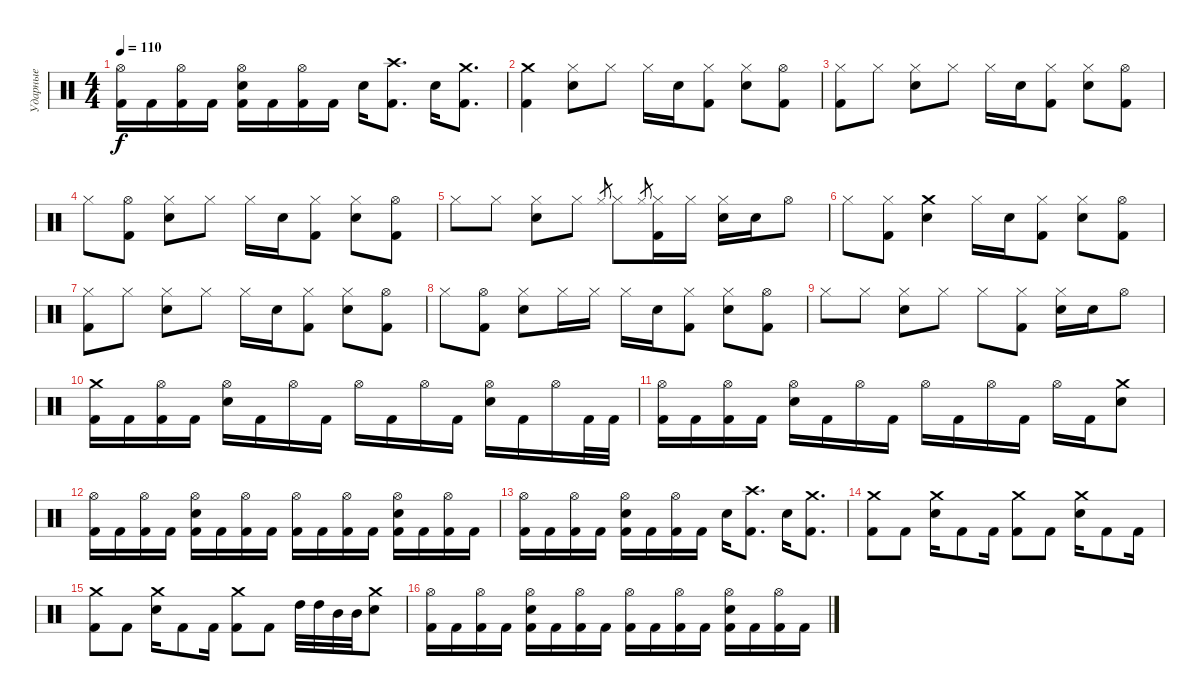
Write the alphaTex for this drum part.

\track ("Ударные" "Ударные") {instrument percussion}
\staff {score}
\articulation defaults
\ts (4 4)
\tempo 110
\clef neutral
\ks c
("Kick (hit) 2" "Hi-Hat (open)").16{dy f} "Kick (hit) 2".16 ("Kick (hit) 2" "Hi-Hat (open)").16 "Kick (hit) 2".16 ("Kick (hit) 2" "Hi-Hat (open)" "Electric Snare (hit)").16 "Kick (hit) 2".16 ("Kick (hit) 2" "Hi-Hat (open)").16 "Kick (hit) 2".16 "Electric Snare (hit)".16 ("Kick (hit) 2" "Crash high (hit)").8{d} "Electric Snare (hit)".16 ("Kick (hit) 2" "Crash medium (hit)").8{d} |
("Kick (hit) 2" "Crash medium (hit)").4 ("Electric Snare (hit)" "Hi-Hat (closed)").8 "Hi-Hat (closed)".8 "Hi-Hat (closed)".16 "Electric Snare (hit)".16 ("Hi-Hat (closed)" "Kick (hit) 2").8 ("Hi-Hat (closed)" "Electric Snare (hit)").8 ("Kick (hit) 2" "Hi-Hat (open)").8 |
("Hi-Hat (closed)" "Kick (hit) 2").8 "Hi-Hat (closed)".8 ("Electric Snare (hit)" "Hi-Hat (closed)").8 "Hi-Hat (closed)".8 "Hi-Hat (closed)".16 "Electric Snare (hit)".16 ("Hi-Hat (closed)" "Kick (hit) 2").8 ("Hi-Hat (closed)" "Electric Snare (hit)").8 ("Kick (hit) 2" "Hi-Hat (open)").8 |
"Hi-Hat (closed)".8 ("Kick (hit) 2" "Hi-Hat (open)").8 ("Electric Snare (hit)" "Hi-Hat (closed)").8 "Hi-Hat (closed)".8 "Hi-Hat (closed)".16 "Electric Snare (hit)".16 ("Hi-Hat (closed)" "Kick (hit) 2").8 ("Hi-Hat (closed)" "Electric Snare (hit)").8 ("Kick (hit) 2" "Hi-Hat (open)").8 |
"Hi-Hat (closed)".8 "Hi-Hat (closed)".8 ("Electric Snare (hit)" "Hi-Hat (closed)").8 "Hi-Hat (closed)".8 "Hi-Hat (closed)".8{gr} "Hi-Hat (closed)".8 "Hi-Hat (closed)".8{gr} ("Kick (hit) 2" "Hi-Hat (closed)").16 "Hi-Hat (closed)".16 ("Electric Snare (hit)" "Hi-Hat (closed)").16 "Electric Snare (hit)".16 "Hi-Hat (open)".8 |
"Hi-Hat (closed)".8 ("Kick (hit) 2" "Hi-Hat (closed)").8 ("Electric Snare (hit)" "Crash medium (hit)").4 "Hi-Hat (closed)".16 "Electric Snare (hit)".16 ("Hi-Hat (closed)" "Kick (hit) 2").8 ("Hi-Hat (closed)" "Electric Snare (hit)").8 ("Kick (hit) 2" "Hi-Hat (open)").8 |
("Hi-Hat (closed)" "Kick (hit) 2").8 "Hi-Hat (closed)".8 ("Electric Snare (hit)" "Hi-Hat (closed)").8 "Hi-Hat (closed)".8 "Hi-Hat (closed)".16 "Electric Snare (hit)".16 ("Hi-Hat (closed)" "Kick (hit) 2").8 ("Hi-Hat (closed)" "Electric Snare (hit)").8 ("Kick (hit) 2" "Hi-Hat (open)").8 |
"Hi-Hat (closed)".8 ("Kick (hit) 2" "Hi-Hat (open)").8 ("Electric Snare (hit)" "Hi-Hat (closed)").8 "Hi-Hat (closed)".16 "Hi-Hat (closed)".16 "Hi-Hat (closed)".16 "Electric Snare (hit)".16 ("Hi-Hat (closed)" "Kick (hit) 2").8 ("Hi-Hat (closed)" "Electric Snare (hit)").8 ("Kick (hit) 2" "Hi-Hat (open)").8 |
"Hi-Hat (closed)".8 "Hi-Hat (closed)".8 ("Electric Snare (hit)" "Hi-Hat (closed)").8 "Hi-Hat (closed)".8 "Hi-Hat (closed)".8 ("Kick (hit) 2" "Hi-Hat (closed)").8 ("Electric Snare (hit)" "Hi-Hat (closed)").16 "Electric Snare (hit)".16 "Hi-Hat (open)".8 |
("Kick (hit) 2" "Crash medium (hit)").16 "Kick (hit) 2".16 ("Kick (hit) 2" "Hi-Hat (open)").16 "Kick (hit) 2".16 ("Electric Snare (hit)" "Hi-Hat (open)").16 "Kick (hit) 2".16 "Hi-Hat (open)".16 "Kick (hit) 2".16 "Hi-Hat (open)".16 "Kick (hit) 2".16 "Hi-Hat (open)".16 "Kick (hit) 2".16 ("Electric Snare (hit)" "Hi-Hat (open)").16 "Kick (hit) 2".16 "Hi-Hat (open)".16 "Kick (hit) 2".32 "Kick (hit) 2".32 |
("Kick (hit) 2" "Hi-Hat (open)").16 "Kick (hit) 2".16 ("Kick (hit) 2" "Hi-Hat (open)").16 "Kick (hit) 2".16 ("Electric Snare (hit)" "Hi-Hat (open)").16 "Kick (hit) 2".16 "Hi-Hat (open)".16 "Kick (hit) 2".16 "Hi-Hat (open)".16 "Kick (hit) 2".16 "Hi-Hat (open)".16 "Kick (hit) 2".16 "Hi-Hat (open)".16 "Kick (hit) 2".16 ("Electric Snare (hit)" "Crash medium (hit)").8 |
("Kick (hit) 2" "Hi-Hat (open)").16 "Kick (hit) 2".16 ("Kick (hit) 2" "Hi-Hat (open)").16 "Kick (hit) 2".16 ("Kick (hit) 2" "Hi-Hat (open)" "Electric Snare (hit)").16 "Kick (hit) 2".16 ("Kick (hit) 2" "Hi-Hat (open)").16 "Kick (hit) 2".16 ("Kick (hit) 2" "Hi-Hat (open)").16 "Kick (hit) 2".16 ("Kick (hit) 2" "Hi-Hat (open)").16 "Kick (hit) 2".16 ("Kick (hit) 2" "Hi-Hat (open)" "Electric Snare (hit)").16 "Kick (hit) 2".16 ("Kick (hit) 2" "Hi-Hat (open)").16 "Kick (hit) 2".16 |
("Kick (hit) 2" "Hi-Hat (open)").16 "Kick (hit) 2".16 ("Kick (hit) 2" "Hi-Hat (open)").16 "Kick (hit) 2".16 ("Kick (hit) 2" "Hi-Hat (open)" "Electric Snare (hit)").16 "Kick (hit) 2".16 ("Kick (hit) 2" "Hi-Hat (open)").16 "Kick (hit) 2".16 "Electric Snare (hit)".16 ("Kick (hit) 2" "Crash high (hit)").8{d} "Electric Snare (hit)".16 ("Kick (hit) 2" "Crash medium (hit)").8{d} |
("Kick (hit) 2" "Crash medium (hit)").8 "Kick (hit) 2".8 ("Electric Snare (hit)" "Crash medium (hit)").16 "Kick (hit) 2".8 "Kick (hit) 2".16 ("Kick (hit) 2" "Crash medium (hit)").8 "Kick (hit) 2".8 ("Electric Snare (hit)" "Crash medium (hit)").16 "Kick (hit) 2".8 "Kick (hit) 2".16 |
("Kick (hit) 2" "Crash medium (hit)").8 "Kick (hit) 2".8 ("Electric Snare (hit)" "Crash medium (hit)").16 "Kick (hit) 2".8 "Kick (hit) 2".16 ("Kick (hit) 2" "Crash medium (hit)").8 "Kick (hit) 2".8 "High Tom (hit)".32 "High Tom (hit)".32 "Mid Tom (hit)".32 "Mid Tom (hit)".32 ("Electric Snare (hit)" "Crash medium (hit)").8 |
("Kick (hit) 2" "Hi-Hat (open)").16 "Kick (hit) 2".16 ("Kick (hit) 2" "Hi-Hat (open)").16 "Kick (hit) 2".16 ("Kick (hit) 2" "Hi-Hat (open)" "Electric Snare (hit)").16 "Kick (hit) 2".16 ("Kick (hit) 2" "Hi-Hat (open)").16 "Kick (hit) 2".16 ("Kick (hit) 2" "Hi-Hat (open)").16 "Kick (hit) 2".16 ("Kick (hit) 2" "Hi-Hat (open)").16 "Kick (hit) 2".16 ("Kick (hit) 2" "Hi-Hat (open)" "Electric Snare (hit)").16 "Kick (hit) 2".16 ("Kick (hit) 2" "Hi-Hat (open)").16 "Kick (hit) 2".16
